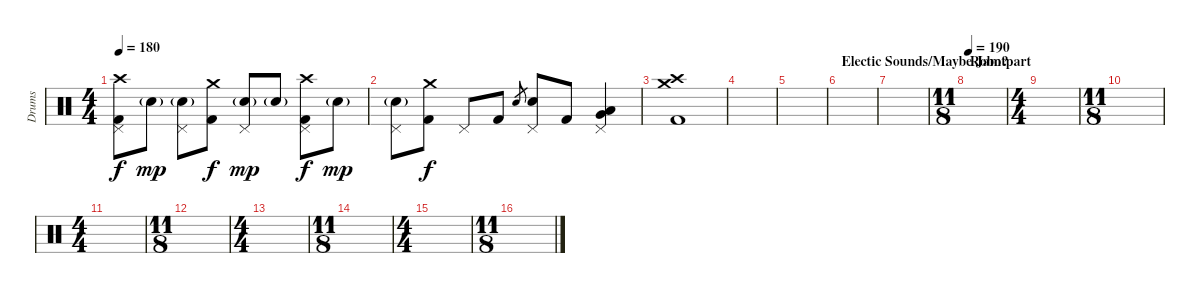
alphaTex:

\track ("Drums" "Drums") {instrument percussion}
\staff {score}
\articulation defaults
\ts (4 4)
\tempo 180
\clef neutral
\ks c
("Crash high (hit)" "Pedal Hi-Hat (hit)" "Kick (hit) 2").8{dy f} "Snare (hit) 2"{g}.8{dy mp} ("Pedal Hi-Hat (hit)" "Snare (hit) 2"{g}).8 ("Crash medium (hit)" "Kick (hit) 2").8{dy f} ("Pedal Hi-Hat (hit)" "Snare (hit) 2"{g}).8{dy mp} "Snare (hit) 2"{g}.8 ("Crash high (hit)" "Pedal Hi-Hat (hit)" "Kick (hit) 2").8{dy f} "Snare (hit) 2"{g}.8{dy mp} |
("Pedal Hi-Hat (hit)" "Snare (hit) 2"{g}).8 ("Crash medium (hit)" "Kick (hit) 2").8{dy f} "Pedal Hi-Hat (hit)".8 "Kick (hit) 2".8 "Snare (hit) 2".8{gr} ("Pedal Hi-Hat (hit)" "Snare (hit) 2").8 "Kick (hit) 2".8 ("Pedal Hi-Hat (hit)" "Very Low Tom (hit)" "Low Floor Tom (hit)").4 |
("Crash high (hit)" "Crash medium (hit)" "Kick (hit) 2").1 |
|
|
\section ("" "Electic Sounds/Maybe Jam?")
|
|
\ts (11 8)
\section ("" "Robotpart")
\tempo 190
|
\ts (4 4)
|
\ts (11 8)
|
\ts (4 4)
|
\ts (11 8)
|
\ts (4 4)
|
\ts (11 8)
|
\ts (4 4)
|
\ts (11 8)
